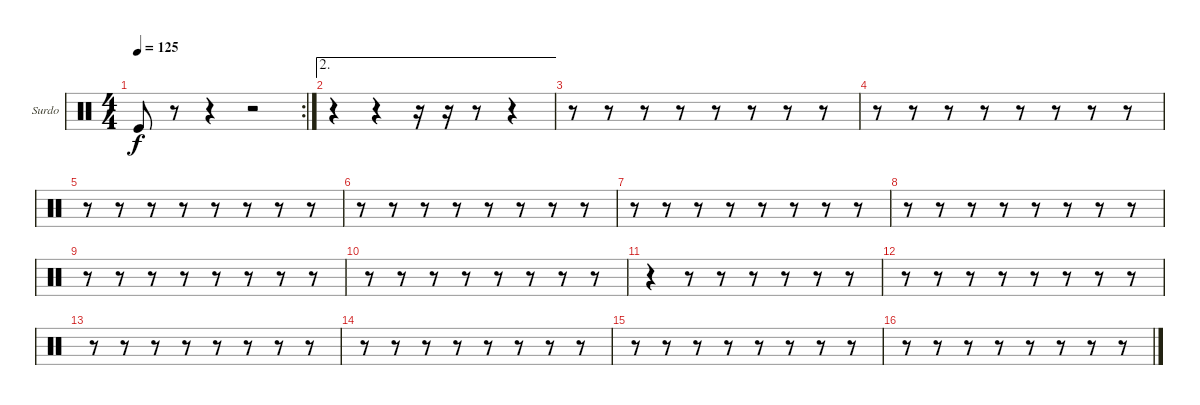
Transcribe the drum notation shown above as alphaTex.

\bracketExtendMode groupsimilarinstruments
\firstSystemTrackNameOrientation horizontal
\otherSystemsTrackNameOrientation horizontal
\track ("Surdo" "Surdo") {instrument percussion}
\staff {score}
\articulation defaults
\rc 2
\ts (4 4)
\tempo 125
\clef neutral
\ks c "Kick (hit)".8{dy f}
r.8 r.4 r.2 |
\ae 2
r.4 r.4 r.16 r.16 r.8 r.4 |
r.8 r.8 r.8 r.8 r.8 r.8 r.8 r.8 |
r.8 r.8 r.8 r.8 r.8 r.8 r.8 r.8 |
r.8 r.8 r.8 r.8 r.8 r.8 r.8 r.8 |
r.8 r.8 r.8 r.8 r.8 r.8 r.8 r.8 |
r.8 r.8 r.8 r.8 r.8 r.8 r.8 r.8 |
r.8 r.8 r.8 r.8 r.8 r.8 r.8 r.8 |
r.8 r.8 r.8 r.8 r.8 r.8 r.8 r.8 |
r.8 r.8 r.8 r.8 r.8 r.8 r.8 r.8 |
r.4 r.8 r.8 r.8 r.8 r.8 r.8 |
r.8 r.8 r.8 r.8 r.8 r.8 r.8 r.8 |
r.8 r.8 r.8 r.8 r.8 r.8 r.8 r.8 |
r.8 r.8 r.8 r.8 r.8 r.8 r.8 r.8 |
r.8 r.8 r.8 r.8 r.8 r.8 r.8 r.8 |
r.8 r.8 r.8 r.8 r.8 r.8 r.8 r.8
